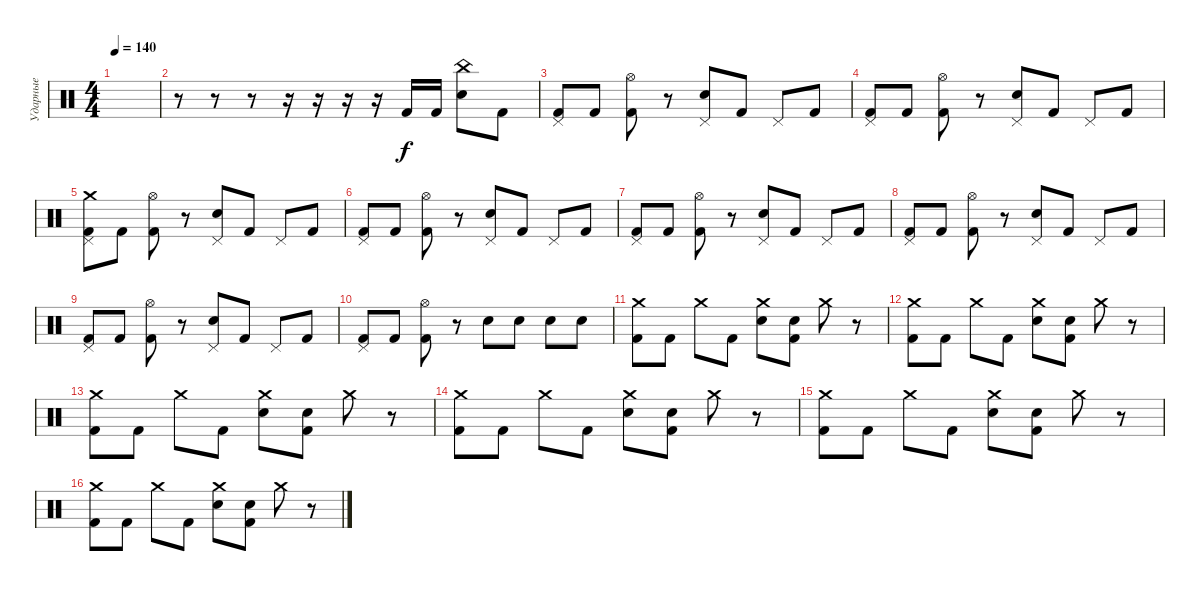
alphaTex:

\track ("Ударные" "Ударные") {instrument percussion}
\staff {score}
\articulation defaults
\ts (4 4)
\tempo 140
\clef neutral
\ks c
|
r.8 r.8 r.8 r.16 r.16 r.16 r.16 "Kick (hit) 2".16 "Kick (hit) 2".16 ("China (hit)" "Electric Snare (hit)").8 "Kick (hit) 2".8 |
("Pedal Hi-Hat (hit)" "Kick (hit) 2").8 "Kick (hit) 2".8 ("Hi-Hat (open)" "Kick (hit) 2").8 r.8 ("Pedal Hi-Hat (hit)" "Electric Snare (hit)").8 "Kick (hit) 2".8 "Pedal Hi-Hat (hit)".8 "Kick (hit) 2".8 |
("Pedal Hi-Hat (hit)" "Kick (hit) 2").8 "Kick (hit) 2".8 ("Hi-Hat (open)" "Kick (hit) 2").8 r.8 ("Pedal Hi-Hat (hit)" "Electric Snare (hit)").8 "Kick (hit) 2".8 "Pedal Hi-Hat (hit)".8 "Kick (hit) 2".8 |
("Crash medium (hit)" "Pedal Hi-Hat (hit)" "Kick (hit) 2").8 "Kick (hit) 2".8 ("Hi-Hat (open)" "Kick (hit) 2").8 r.8 ("Pedal Hi-Hat (hit)" "Electric Snare (hit)").8 "Kick (hit) 2".8 "Pedal Hi-Hat (hit)".8 "Kick (hit) 2".8 |
("Pedal Hi-Hat (hit)" "Kick (hit) 2").8 "Kick (hit) 2".8 ("Hi-Hat (open)" "Kick (hit) 2").8 r.8 ("Pedal Hi-Hat (hit)" "Electric Snare (hit)").8 "Kick (hit) 2".8 "Pedal Hi-Hat (hit)".8 "Kick (hit) 2".8 |
("Pedal Hi-Hat (hit)" "Kick (hit) 2").8 "Kick (hit) 2".8 ("Hi-Hat (open)" "Kick (hit) 2").8 r.8 ("Pedal Hi-Hat (hit)" "Electric Snare (hit)").8 "Kick (hit) 2".8 "Pedal Hi-Hat (hit)".8 "Kick (hit) 2".8 |
("Pedal Hi-Hat (hit)" "Kick (hit) 2").8 "Kick (hit) 2".8 ("Hi-Hat (open)" "Kick (hit) 2").8 r.8 ("Pedal Hi-Hat (hit)" "Electric Snare (hit)").8 "Kick (hit) 2".8 "Pedal Hi-Hat (hit)".8 "Kick (hit) 2".8 |
("Pedal Hi-Hat (hit)" "Kick (hit) 2").8 "Kick (hit) 2".8 ("Hi-Hat (open)" "Kick (hit) 2").8 r.8 ("Pedal Hi-Hat (hit)" "Electric Snare (hit)").8 "Kick (hit) 2".8 "Pedal Hi-Hat (hit)".8 "Kick (hit) 2".8 |
("Pedal Hi-Hat (hit)" "Kick (hit) 2").8 "Kick (hit) 2".8 ("Hi-Hat (open)" "Kick (hit) 2").8 r.8 "Electric Snare (hit)".8 "Electric Snare (hit)".8 "Electric Snare (hit)".8 "Electric Snare (hit)".8 |
("Crash medium (hit)" "Kick (hit) 2").8 "Kick (hit) 2".8 "Crash medium (hit)".8 "Kick (hit) 2".8 ("Crash medium (hit)" "Electric Snare (hit)").8 ("Snare (hit)" "Kick (hit) 2").8 "Crash medium (hit)".8 r.8 |
("Crash medium (hit)" "Kick (hit) 2").8 "Kick (hit) 2".8 "Crash medium (hit)".8 "Kick (hit) 2".8 ("Crash medium (hit)" "Electric Snare (hit)").8 ("Snare (hit)" "Kick (hit) 2").8 "Crash medium (hit)".8 r.8 |
("Crash medium (hit)" "Kick (hit) 2").8 "Kick (hit) 2".8 "Crash medium (hit)".8 "Kick (hit) 2".8 ("Crash medium (hit)" "Electric Snare (hit)").8 ("Snare (hit)" "Kick (hit) 2").8 "Crash medium (hit)".8 r.8 |
("Crash medium (hit)" "Kick (hit) 2").8 "Kick (hit) 2".8 "Crash medium (hit)".8 "Kick (hit) 2".8 ("Crash medium (hit)" "Electric Snare (hit)").8 ("Snare (hit)" "Kick (hit) 2").8 "Crash medium (hit)".8 r.8 |
("Crash medium (hit)" "Kick (hit) 2").8 "Kick (hit) 2".8 "Crash medium (hit)".8 "Kick (hit) 2".8 ("Crash medium (hit)" "Electric Snare (hit)").8 ("Snare (hit)" "Kick (hit) 2").8 "Crash medium (hit)".8 r.8 |
("Crash medium (hit)" "Kick (hit) 2").8 "Kick (hit) 2".8 "Crash medium (hit)".8 "Kick (hit) 2".8 ("Crash medium (hit)" "Electric Snare (hit)").8 ("Snare (hit)" "Kick (hit) 2").8 "Crash medium (hit)".8 r.8
